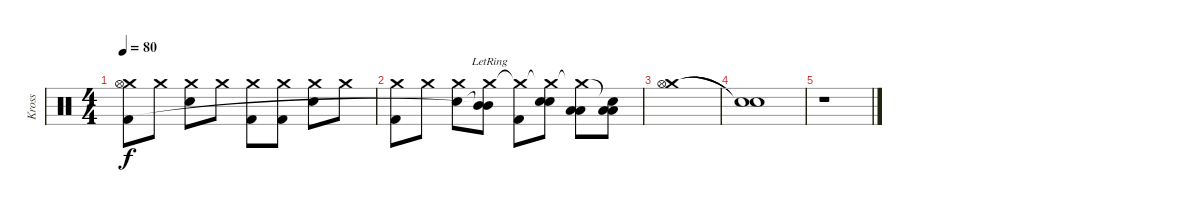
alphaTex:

\track ("Kross" "Kross") {instrument percussion}
\staff {score}
\articulation defaults
\ts (4 4)
\tempo 80
\clef neutral
\ks c
("Crash medium (hit)" "Hi-Hat (open)" "Kick (hit) 2").8{dy f} "Crash medium (hit)".8 ("Crash medium (hit)" "Snare (hit) 2").8 "Crash medium (hit)".8 ("Crash medium (hit)" "Kick (hit) 2").8 ("Crash medium (hit)" "Kick (hit) 2").8 ("Crash medium (hit)" "Snare (hit) 2").8 "Crash medium (hit)".8 |
("Crash medium (hit)" "Kick (hit) 2").8 "Crash medium (hit)".8 ("Crash medium (hit)" "Snare (hit) 2").8 ("Crash medium (hit)"{lr} "Mid Tom (hit)"{t} "Mid Tom (hit)"{t}).8 ("Crash medium (hit)"{t} "Kick (hit) 2").8 ("Crash medium (hit)"{t} "Snare (hit) 2" "Snare (hit) 2").8 ("Crash medium (hit)"{t} "Low Tom (hit)" "Low Tom (hit)").8 ("Snare (hit)"{t} "Low Tom (hit)" "Low Tom (hit)").8 |
("Crash medium (hit)" "Hi-Hat (open)").1 |
("Snare (hit)"{t} "Snare (hit)"{t}).1 |
r.1
